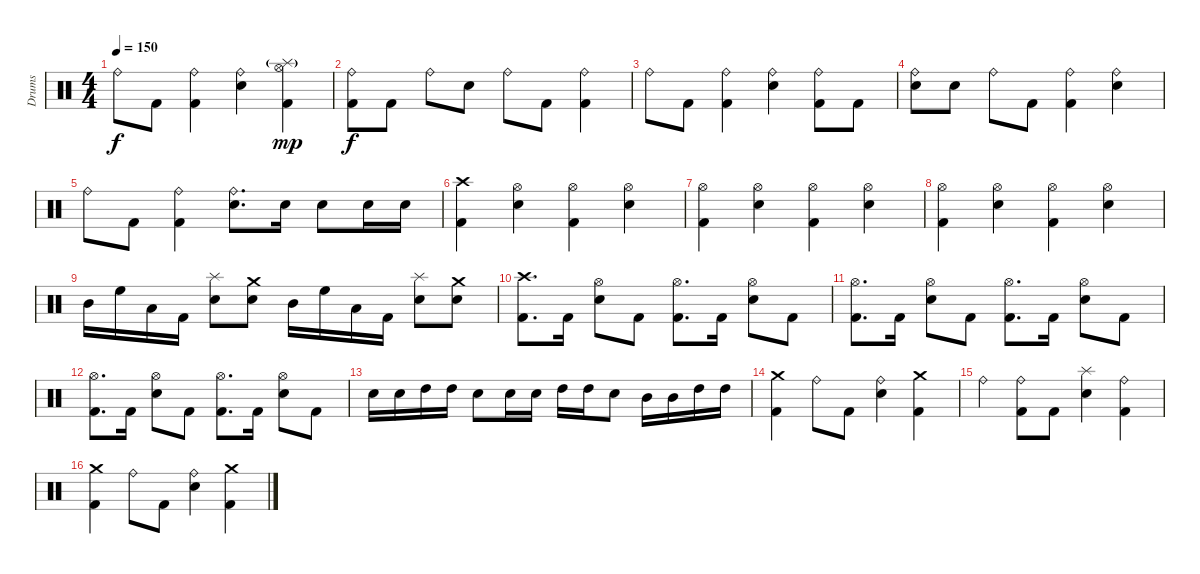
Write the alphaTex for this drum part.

\track ("Drums" "Drums") {instrument percussion}
\staff {score}
\articulation defaults
\ts (4 4)
\tempo 150
\clef neutral
\ks c "Ride (bell)".8{dy f} "Kick (hit) 2".8
("Ride (bell)" "Kick (hit) 2").4 ("Ride (bell)" "Electric Snare (hit)").4 ("Hi-Hat (open)" "Splash (hit)"{g} "Kick (hit) 2").4{dy mp} |
("Ride (bell)" "Kick (hit) 2").8{dy f} "Kick (hit) 2".8 "Ride (bell)".8 "Electric Snare (hit)".8 "Ride (bell)".8 "Kick (hit) 2".8 ("Ride (bell)" "Kick (hit) 2").4 |
"Ride (bell)".8 "Kick (hit) 2".8 ("Ride (bell)" "Kick (hit) 2").4 ("Ride (bell)" "Electric Snare (hit)").4 ("Ride (bell)" "Kick (hit) 2").8 "Kick (hit) 2".8 |
("Ride (bell)" "Electric Snare (hit)").8 "Electric Snare (hit)".8 "Ride (bell)".8 "Kick (hit) 2".8 ("Ride (bell)" "Kick (hit) 2").4 ("Ride (bell)" "Electric Snare (hit)").4 |
"Ride (bell)".8 "Kick (hit) 2".8 ("Ride (bell)" "Kick (hit) 2").4 ("Ride (bell)" "Electric Snare (hit)").8{d} "Electric Snare (hit)".16 "Electric Snare (hit)".8 "Electric Snare (hit)".16 "Electric Snare (hit)".16 |
("Crash high (hit)" "Kick (hit) 2").4 ("Hi-Hat (open)" "Electric Snare (hit)").4 ("Hi-Hat (open)" "Kick (hit) 2").4 ("Hi-Hat (open)" "Electric Snare (hit)").4 |
("Hi-Hat (open)" "Kick (hit) 2").4 ("Hi-Hat (open)" "Electric Snare (hit)").4 ("Hi-Hat (open)" "Kick (hit) 2").4 ("Hi-Hat (open)" "Electric Snare (hit)").4 |
("Hi-Hat (open)" "Kick (hit) 2").4 ("Hi-Hat (open)" "Electric Snare (hit)").4 ("Hi-Hat (open)" "Kick (hit) 2").4 ("Hi-Hat (open)" "Electric Snare (hit)").4 |
"Mid Tom (hit)".16 "High Floor Tom (hit)".16 "Low Floor Tom (hit)".16 "Kick (hit) 2".16 ("Splash (hit)" "Electric Snare (hit)").8 ("Crash medium (hit)" "Electric Snare (hit)").8 "Mid Tom (hit)".16 "High Floor Tom (hit)".16 "Low Floor Tom (hit)".16 "Kick (hit) 2".16 ("Splash (hit)" "Electric Snare (hit)").8 ("Crash medium (hit)" "Electric Snare (hit)").8 |
("Crash high (hit)" "Kick (hit) 2").8{d} "Kick (hit) 2".16 ("Hi-Hat (open)" "Electric Snare (hit)").8 "Kick (hit) 2".8 ("Hi-Hat (open)" "Kick (hit) 2").8{d} "Kick (hit) 2".16 ("Hi-Hat (open)" "Electric Snare (hit)").8 "Kick (hit) 2".8 |
("Hi-Hat (open)" "Kick (hit) 2").8{d} "Kick (hit) 2".16 ("Hi-Hat (open)" "Electric Snare (hit)").8 "Kick (hit) 2".8 ("Hi-Hat (open)" "Kick (hit) 2").8{d} "Kick (hit) 2".16 ("Hi-Hat (open)" "Electric Snare (hit)").8 "Kick (hit) 2".8 |
("Hi-Hat (open)" "Kick (hit) 2").8{d} "Kick (hit) 2".16 ("Hi-Hat (open)" "Electric Snare (hit)").8 "Kick (hit) 2".8 ("Hi-Hat (open)" "Kick (hit) 2").8{d} "Kick (hit) 2".16 ("Hi-Hat (open)" "Electric Snare (hit)").8 "Kick (hit) 2".8 |
"Electric Snare (hit)".16 "Electric Snare (hit)".16 "High Tom (hit)".16 "High Tom (hit)".16 "Electric Snare (hit)".8 "Electric Snare (hit)".16 "Electric Snare (hit)".16 "High Tom (hit)".16 "High Tom (hit)".16 "Electric Snare (hit)".8 "Mid Tom (hit)".16 "Mid Tom (hit)".16 "High Tom (hit)".16 "High Tom (hit)".16 |
("Crash medium (hit)" "Kick (hit) 2").4 "Ride (bell)".8 "Kick (hit) 2".8 ("Ride (bell)" "Electric Snare (hit)").4 ("Crash medium (hit)" "Kick (hit) 2").4 |
"Ride (bell)".4 ("Ride (bell)" "Kick (hit) 2").8 "Kick (hit) 2".8 ("Splash (hit)" "Electric Snare (hit)").4 ("Ride (bell)" "Kick (hit) 2").4 |
("Crash medium (hit)" "Kick (hit) 2").4 "Ride (bell)".8 "Kick (hit) 2".8 ("Ride (bell)" "Electric Snare (hit)").4 ("Crash medium (hit)" "Kick (hit) 2").4
